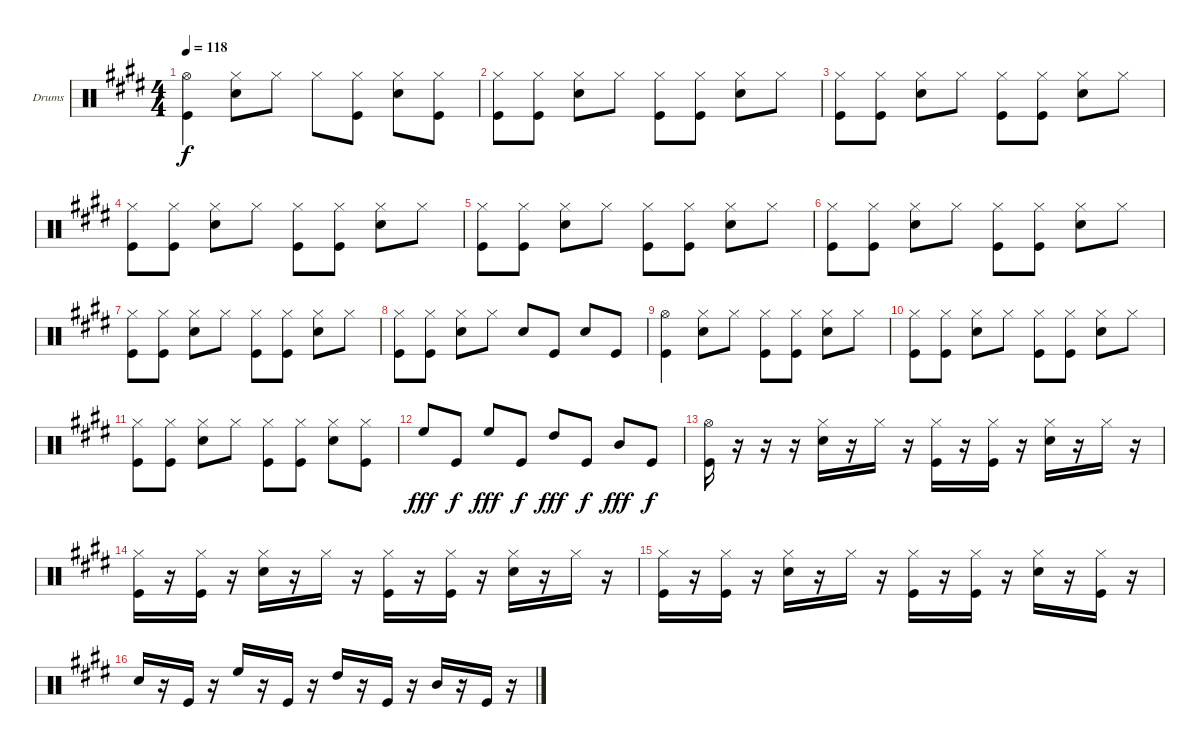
\bracketExtendMode groupsimilarinstruments
\firstSystemTrackNameOrientation horizontal
\otherSystemsTrackNameOrientation horizontal
\track ("Drumkit" "Drums") {instrument percussion}
\staff {score}
\articulation defaults
\ts (4 4)
\tempo 118
\clef neutral
\ks e
("Hi-Hat (open)" "Kick (hit)").4{dy f} ("Hi-Hat (closed)" "Snare (hit) 2").8 "Hi-Hat (closed)".8 "Hi-Hat (closed)".8 ("Hi-Hat (closed)" "Kick (hit)").8 ("Hi-Hat (closed)" "Snare (hit) 2").8 ("Hi-Hat (closed)" "Kick (hit)").8 |
("Hi-Hat (closed)" "Kick (hit)").8 ("Hi-Hat (closed)" "Kick (hit)").8 ("Hi-Hat (closed)" "Snare (hit) 2").8 "Hi-Hat (closed)".8 ("Hi-Hat (closed)" "Kick (hit)").8 ("Hi-Hat (closed)" "Kick (hit)").8 ("Hi-Hat (closed)" "Snare (hit) 2").8 "Hi-Hat (closed)".8 |
("Hi-Hat (closed)" "Kick (hit)").8 ("Hi-Hat (closed)" "Kick (hit)").8 ("Hi-Hat (closed)" "Snare (hit) 2").8 "Hi-Hat (closed)".8 ("Hi-Hat (closed)" "Kick (hit)").8 ("Hi-Hat (closed)" "Kick (hit)").8 ("Hi-Hat (closed)" "Snare (hit) 2").8 "Hi-Hat (closed)".8 |
("Hi-Hat (closed)" "Kick (hit)").8 ("Hi-Hat (closed)" "Kick (hit)").8 ("Hi-Hat (closed)" "Snare (hit) 2").8 "Hi-Hat (closed)".8 ("Hi-Hat (closed)" "Kick (hit)").8 ("Hi-Hat (closed)" "Kick (hit)").8 ("Hi-Hat (closed)" "Snare (hit) 2").8 "Hi-Hat (closed)".8 |
("Hi-Hat (closed)" "Kick (hit)").8 ("Hi-Hat (closed)" "Kick (hit)").8 ("Hi-Hat (closed)" "Snare (hit) 2").8 "Hi-Hat (closed)".8 ("Hi-Hat (closed)" "Kick (hit)").8 ("Hi-Hat (closed)" "Kick (hit)").8 ("Hi-Hat (closed)" "Snare (hit) 2").8 "Hi-Hat (closed)".8 |
("Hi-Hat (closed)" "Kick (hit)").8 ("Hi-Hat (closed)" "Kick (hit)").8 ("Hi-Hat (closed)" "Snare (hit) 2").8 "Hi-Hat (closed)".8 ("Hi-Hat (closed)" "Kick (hit)").8 ("Hi-Hat (closed)" "Kick (hit)").8 ("Hi-Hat (closed)" "Snare (hit) 2").8 "Hi-Hat (closed)".8 |
("Hi-Hat (closed)" "Kick (hit)").8 ("Hi-Hat (closed)" "Kick (hit)").8 ("Hi-Hat (closed)" "Snare (hit) 2").8 "Hi-Hat (closed)".8 ("Hi-Hat (closed)" "Kick (hit)").8 ("Hi-Hat (closed)" "Kick (hit)").8 ("Hi-Hat (closed)" "Snare (hit) 2").8 "Hi-Hat (closed)".8 |
("Hi-Hat (closed)" "Kick (hit)").8 ("Hi-Hat (closed)" "Kick (hit)").8 ("Hi-Hat (closed)" "Snare (hit) 2").8 "Hi-Hat (closed)".8 "Snare (hit) 2".8 "Kick (hit)".8 "Snare (hit) 2".8 "Kick (hit)".8 |
("Hi-Hat (open)" "Kick (hit)").4 ("Hi-Hat (closed)" "Snare (hit) 2").8 "Hi-Hat (closed)".8 ("Hi-Hat (closed)" "Kick (hit)").8 ("Hi-Hat (closed)" "Kick (hit)").8 ("Hi-Hat (closed)" "Snare (hit) 2").8 "Hi-Hat (closed)".8 |
("Hi-Hat (closed)" "Kick (hit)").8 ("Hi-Hat (closed)" "Kick (hit)").8 ("Hi-Hat (closed)" "Snare (hit) 2").8 "Hi-Hat (closed)".8 ("Hi-Hat (closed)" "Kick (hit)").8 ("Hi-Hat (closed)" "Kick (hit)").8 ("Hi-Hat (closed)" "Snare (hit) 2").8 "Hi-Hat (closed)".8 |
("Hi-Hat (closed)" "Kick (hit)").8 ("Hi-Hat (closed)" "Kick (hit)").8 ("Hi-Hat (closed)" "Snare (hit) 2").8 "Hi-Hat (closed)".8 ("Hi-Hat (closed)" "Kick (hit)").8 ("Hi-Hat (closed)" "Kick (hit)").8 ("Hi-Hat (closed)" "Snare (hit) 2").8 ("Hi-Hat (closed)" "Kick (hit)").8 |
"High Floor Tom (hit)".8{dy fff} "Kick (hit)".8{dy f} "High Floor Tom (hit)".8{dy fff} "Kick (hit)".8{dy f} "High Tom (hit)".8{dy fff} "Kick (hit)".8{dy f} "Mid Tom (hit)".8{dy fff} "Kick (hit)".8{dy f} |
("Hi-Hat (open)" "Kick (hit)").16 r.16 r.16 r.16 ("Hi-Hat (closed)" "Snare (hit) 2").16 r.16 "Hi-Hat (closed)".16 r.16 ("Hi-Hat (closed)" "Kick (hit)").16 r.16 ("Hi-Hat (closed)" "Kick (hit)").16 r.16 ("Hi-Hat (closed)" "Snare (hit) 2").16 r.16 "Hi-Hat (closed)".16 r.16 |
("Hi-Hat (closed)" "Kick (hit)").16 r.16 ("Hi-Hat (closed)" "Kick (hit)").16 r.16 ("Hi-Hat (closed)" "Snare (hit) 2").16 r.16 "Hi-Hat (closed)".16 r.16 ("Hi-Hat (closed)" "Kick (hit)").16 r.16 ("Hi-Hat (closed)" "Kick (hit)").16 r.16 ("Hi-Hat (closed)" "Snare (hit) 2").16 r.16 "Hi-Hat (closed)".16 r.16 |
("Hi-Hat (closed)" "Kick (hit)").16 r.16 ("Hi-Hat (closed)" "Kick (hit)").16 r.16 ("Hi-Hat (closed)" "Snare (hit) 2").16 r.16 "Hi-Hat (closed)".16 r.16 ("Hi-Hat (closed)" "Kick (hit)").16 r.16 ("Hi-Hat (closed)" "Kick (hit)").16 r.16 ("Hi-Hat (closed)" "Snare (hit) 2").16 r.16 ("Hi-Hat (closed)" "Kick (hit)").16 r.16 |
"Snare (hit) 2".16 r.16 "Kick (hit)".16 r.16 "High Floor Tom (hit)".16 r.16 "Kick (hit)".16 r.16 "High Tom (hit)".16 r.16 "Kick (hit)".16 r.16 "Mid Tom (hit)".16 r.16 "Kick (hit)".16 r.16
